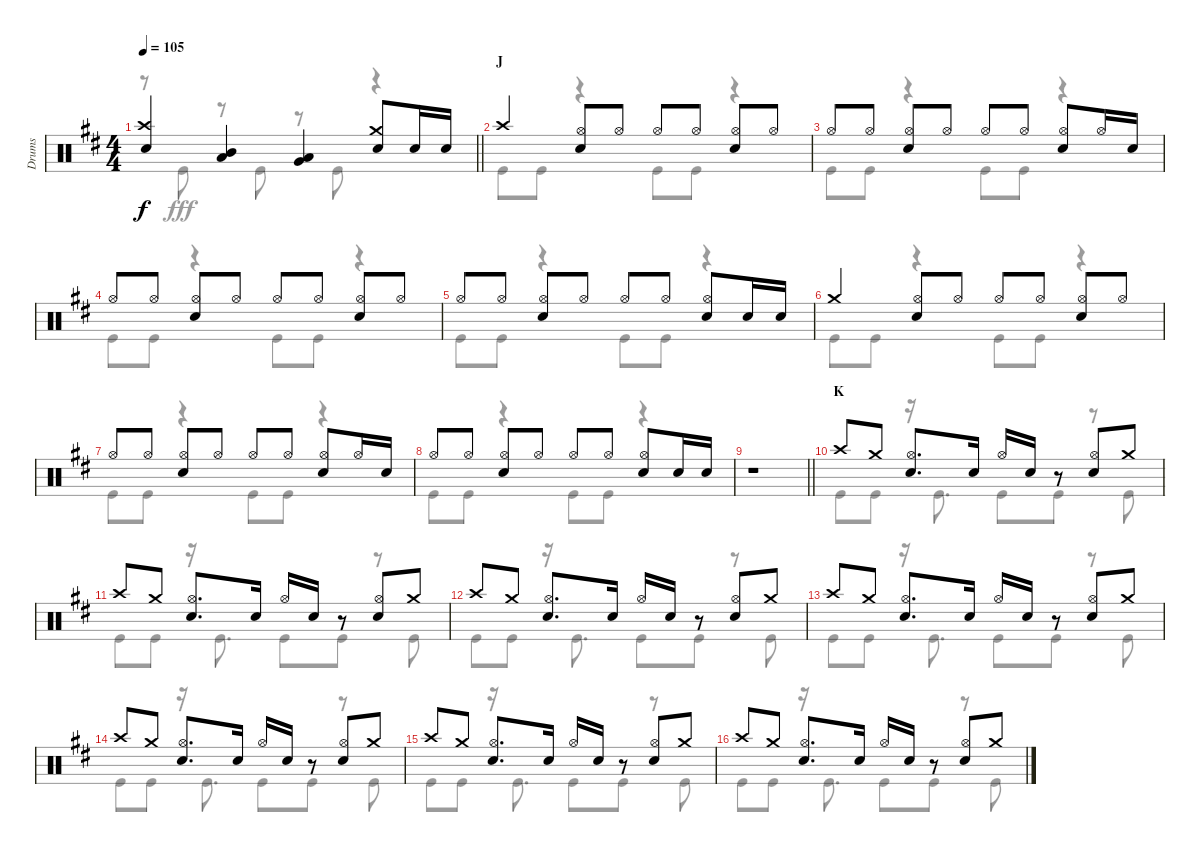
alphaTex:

\track ("Drums" "Drums") {instrument percussion}
\staff {score}
\articulation defaults
\voice
\ts (4 4)
\tempo 105
\clef neutral
\barLineRight lightlight
\ks d
("Crash high (hit)" "Snare (hit) 2").4{dy f} ("Mid Tom (hit)" "Low Tom (hit)").4 ("Low Tom (hit)" "Very Low Tom (hit)").4 ("Crash medium (hit)" "Snare (hit) 2").8 "Snare (hit) 2".16 "Snare (hit) 2".16 |
\section ("" "J")
"Crash high (hit)".4 ("Hi-Hat (open)" "Snare (hit) 2").8 "Hi-Hat (open)".8 "Hi-Hat (open)".8 "Hi-Hat (open)".8 ("Hi-Hat (open)" "Snare (hit) 2").8 "Hi-Hat (open)".8 |
"Hi-Hat (open)".8 "Hi-Hat (open)".8 ("Hi-Hat (open)" "Snare (hit) 2").8 "Hi-Hat (open)".8 "Hi-Hat (open)".8 "Hi-Hat (open)".8 ("Hi-Hat (open)" "Snare (hit) 2").8 "Hi-Hat (open)".16 "Snare (hit) 2".16 |
"Hi-Hat (open)".8 "Hi-Hat (open)".8 ("Hi-Hat (open)" "Snare (hit) 2").8 "Hi-Hat (open)".8 "Hi-Hat (open)".8 "Hi-Hat (open)".8 ("Hi-Hat (open)" "Snare (hit) 2").8 "Hi-Hat (open)".8 |
"Hi-Hat (open)".8 "Hi-Hat (open)".8 ("Hi-Hat (open)" "Snare (hit) 2").8 "Hi-Hat (open)".8 "Hi-Hat (open)".8 "Hi-Hat (open)".8 ("Hi-Hat (open)" "Snare (hit) 2").8 "Snare (hit) 2".16 "Snare (hit) 2".16 |
"Crash medium (hit)".4 ("Hi-Hat (open)" "Snare (hit) 2").8 "Hi-Hat (open)".8 "Hi-Hat (open)".8 "Hi-Hat (open)".8 ("Hi-Hat (open)" "Snare (hit) 2").8 "Hi-Hat (open)".8 |
"Hi-Hat (open)".8 "Hi-Hat (open)".8 ("Hi-Hat (open)" "Snare (hit) 2").8 "Hi-Hat (open)".8 "Hi-Hat (open)".8 "Hi-Hat (open)".8 ("Hi-Hat (open)" "Snare (hit) 2").8 "Hi-Hat (open)".16 "Snare (hit) 2".16 |
"Hi-Hat (open)".8 "Hi-Hat (open)".8 ("Hi-Hat (open)" "Snare (hit) 2").8 "Hi-Hat (open)".8 "Hi-Hat (open)".8 "Hi-Hat (open)".8 ("Hi-Hat (open)" "Snare (hit) 2").8 "Snare (hit) 2".16 "Snare (hit) 2".16 |
\barLineRight lightlight
r.1 |
\section ("" "K")
"Crash high (hit)".8 "Crash medium (hit)".8 ("Hi-Hat (open)" "Snare (hit) 2").8{d} "Snare (hit) 2".16 "Hi-Hat (open)".16 "Snare (hit) 2".16 r.8 ("Hi-Hat (open)" "Snare (hit) 2").8 "Crash medium (hit)".8 |
"Crash high (hit)".8 "Crash medium (hit)".8 ("Hi-Hat (open)" "Snare (hit) 2").8{d} "Snare (hit) 2".16 "Hi-Hat (open)".16 "Snare (hit) 2".16 r.8 ("Hi-Hat (open)" "Snare (hit) 2").8 "Crash medium (hit)".8 |
"Crash high (hit)".8 "Crash medium (hit)".8 ("Hi-Hat (open)" "Snare (hit) 2").8{d} "Snare (hit) 2".16 "Hi-Hat (open)".16 "Snare (hit) 2".16 r.8 ("Hi-Hat (open)" "Snare (hit) 2").8 "Crash medium (hit)".8 |
"Crash high (hit)".8 "Crash medium (hit)".8 ("Hi-Hat (open)" "Snare (hit) 2").8{d} "Snare (hit) 2".16 "Hi-Hat (open)".16 "Snare (hit) 2".16 r.8 ("Hi-Hat (open)" "Snare (hit) 2").8 "Crash medium (hit)".8 |
"Crash high (hit)".8 "Crash medium (hit)".8 ("Hi-Hat (open)" "Snare (hit) 2").8{d} "Snare (hit) 2".16 "Hi-Hat (open)".16 "Snare (hit) 2".16 r.8 ("Hi-Hat (open)" "Snare (hit) 2").8 "Crash medium (hit)".8 |
"Crash high (hit)".8 "Crash medium (hit)".8 ("Hi-Hat (open)" "Snare (hit) 2").8{d} "Snare (hit) 2".16 "Hi-Hat (open)".16 "Snare (hit) 2".16 r.8 ("Hi-Hat (open)" "Snare (hit) 2").8 "Crash medium (hit)".8 |
"Crash high (hit)".8 "Crash medium (hit)".8 ("Hi-Hat (open)" "Snare (hit) 2").8{d} "Snare (hit) 2".16 "Hi-Hat (open)".16 "Snare (hit) 2".16 r.8 ("Hi-Hat (open)" "Snare (hit) 2").8 "Crash medium (hit)".8
\voice
\clef neutral
\ottava regular
\simile none
\barLineRight lightlight
\ks d
r.8{dy fff} "Kick (hit)".8 r.8 "Kick (hit)".8 r.8 "Kick (hit)".8 r.4 |
"Kick (hit)".8 "Kick (hit)".8 r.4 "Kick (hit)".8 "Kick (hit)".8 r.4 |
"Kick (hit)".8 "Kick (hit)".8 r.4 "Kick (hit)".8 "Kick (hit)".8 r.4 |
"Kick (hit)".8 "Kick (hit)".8 r.4 "Kick (hit)".8 "Kick (hit)".8 r.4 |
"Kick (hit)".8 "Kick (hit)".8 r.4 "Kick (hit)".8 "Kick (hit)".8 r.4 |
"Kick (hit)".8 "Kick (hit)".8 r.4 "Kick (hit)".8 "Kick (hit)".8 r.4 |
"Kick (hit)".8 "Kick (hit)".8 r.4 "Kick (hit)".8 "Kick (hit)".8 r.4 |
"Kick (hit)".8 "Kick (hit)".8 r.4 "Kick (hit)".8 "Kick (hit)".8 r.4 |
\barLineRight lightlight
r.1 |
"Kick (hit)".8 "Kick (hit)".8 r.16 "Kick (hit)".8{d} "Kick (hit)".8 "Kick (hit)".8 r.8 "Kick (hit)".8 |
"Kick (hit)".8 "Kick (hit)".8 r.16 "Kick (hit)".8{d} "Kick (hit)".8 "Kick (hit)".8 r.8 "Kick (hit)".8 |
"Kick (hit)".8 "Kick (hit)".8 r.16 "Kick (hit)".8{d} "Kick (hit)".8 "Kick (hit)".8 r.8 "Kick (hit)".8 |
"Kick (hit)".8 "Kick (hit)".8 r.16 "Kick (hit)".8{d} "Kick (hit)".8 "Kick (hit)".8 r.8 "Kick (hit)".8 |
"Kick (hit)".8 "Kick (hit)".8 r.16 "Kick (hit)".8{d} "Kick (hit)".8 "Kick (hit)".8 r.8 "Kick (hit)".8 |
"Kick (hit)".8 "Kick (hit)".8 r.16 "Kick (hit)".8{d} "Kick (hit)".8 "Kick (hit)".8 r.8 "Kick (hit)".8 |
"Kick (hit)".8 "Kick (hit)".8 r.16 "Kick (hit)".8{d} "Kick (hit)".8 "Kick (hit)".8 r.8 "Kick (hit)".8
